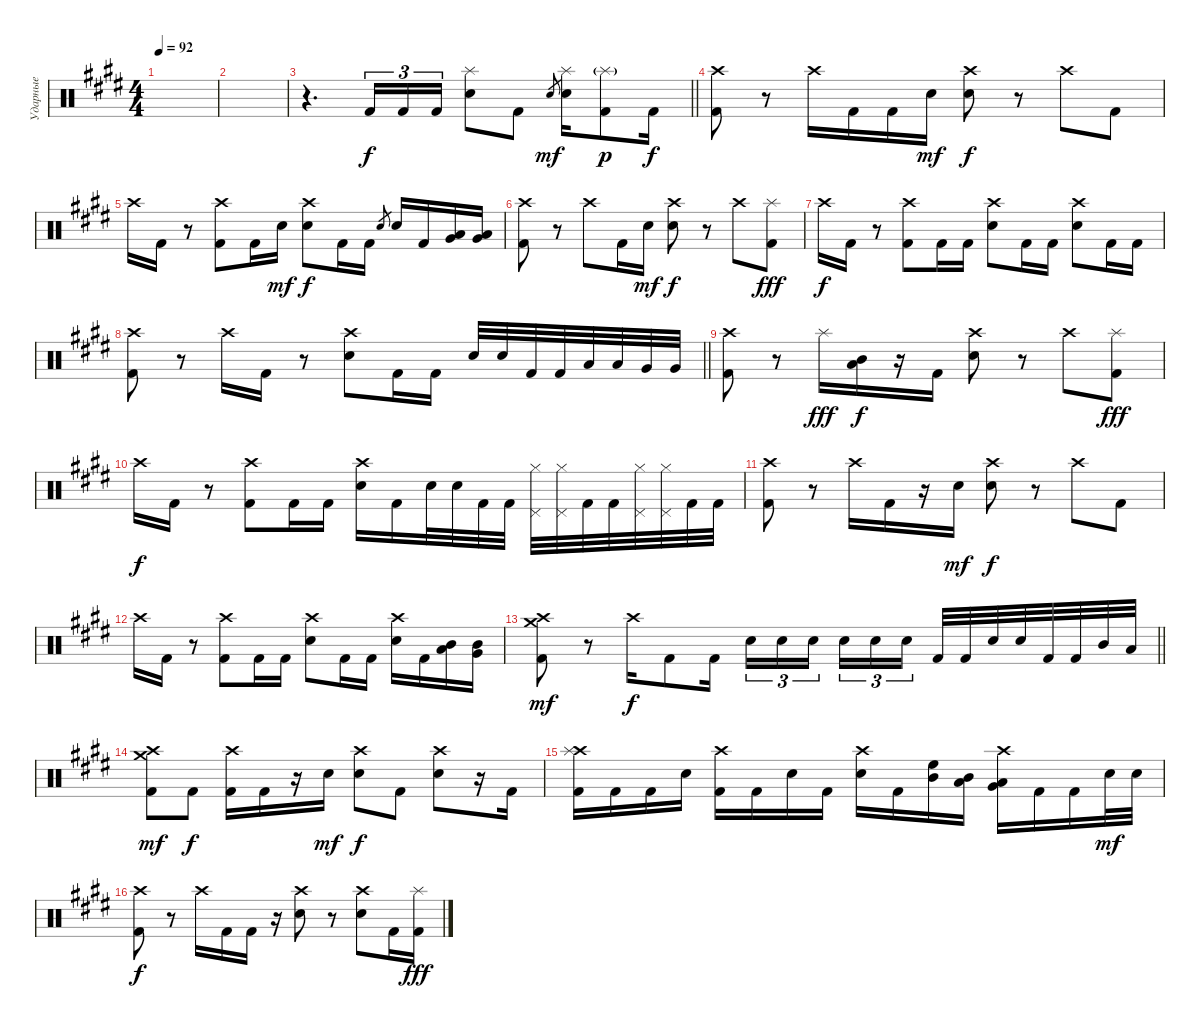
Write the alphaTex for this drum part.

\track ("Ударные" "Ударные") {instrument percussion}
\staff {score}
\articulation defaults
\ts (4 4)
\tempo 92
\clef neutral
\ks e
|
|
\barLineRight lightlight
r.4{d} "Kick (hit) 2".16{tu (3 2)} "Kick (hit) 2".16{tu (3 2)} "Kick (hit) 2".16{tu (3 2)} ("Splash (hit)" "Electric Snare (hit)").8 "Kick (hit) 2".8 "Electric Snare (hit)".8{gr dy mf} ("Splash (hit)" "Electric Snare (hit)").16 ("Splash (hit)"{g} "Kick (hit) 2").8{dy p} "Kick (hit) 2".16{dy f} |
("Crash high (hit)" "Kick (hit) 2").8 r.8 "Crash high (hit)".16 "Kick (hit) 2".16 "Kick (hit) 2".16 "Electric Snare (hit)".16{dy mf} ("Crash high (hit)" "Electric Snare (hit)").8{dy f} r.8 "Crash high (hit)".8 "Kick (hit) 2".8 |
"Crash high (hit)".16 "Kick (hit) 2".16 r.8 ("Crash high (hit)" "Kick (hit) 2").8 "Kick (hit) 2".16 "Electric Snare (hit)".16{dy mf} ("Crash high (hit)" "Electric Snare (hit)").8{dy f} "Kick (hit) 2".16 "Kick (hit) 2".16 "Electric Snare (hit)".8{gr} "Electric Snare (hit)".16 "Kick (hit) 2".16 ("Low Tom (hit)" "Very Low Tom (hit)").16 ("Very Low Tom (hit)" "Low Floor Tom (hit)").16 |
("Crash high (hit)" "Kick (hit) 2").8 r.8 "Crash high (hit)".8 "Kick (hit) 2".16 "Electric Snare (hit)".16{dy mf} ("Crash high (hit)" "Electric Snare (hit)").8{dy f} r.8 "Crash high (hit)".8 ("Splash (hit)" "Kick (hit) 2").8{dy fff} |
"Crash high (hit)".16{dy f} "Kick (hit) 2".16 r.8 ("Crash high (hit)" "Kick (hit) 2").8 "Kick (hit) 2".16 "Kick (hit) 2".16 ("Crash high (hit)" "Electric Snare (hit)").8 "Kick (hit) 2".16 "Kick (hit) 2".16 ("Crash high (hit)" "Electric Snare (hit)").8 "Kick (hit) 2".16 "Kick (hit) 2".16 |
\barLineRight lightlight
("Crash high (hit)" "Kick (hit) 2").8 r.8 "Crash high (hit)".16 "Kick (hit) 2".16 r.8 ("Crash high (hit)" "Electric Snare (hit)").8 "Kick (hit) 2".16 "Kick (hit) 2".16 "Electric Snare (hit)".32 "Electric Snare (hit)".32 "Kick (hit) 2".32 "Kick (hit) 2".32 "Low Tom (hit)".32 "Low Tom (hit)".32 "Very Low Tom (hit)".32 "Very Low Tom (hit)".32 |
("Crash high (hit)" "Kick (hit) 2").8 r.8 "Splash (hit)".16{dy fff} ("Low Tom (hit)" "Mid Tom (hit)").16{dy f} r.16 "Kick (hit) 2".16 ("Crash high (hit)" "Electric Snare (hit)").8 r.8 "Crash high (hit)".8 ("Splash (hit)" "Kick (hit) 2").8{dy fff} |
"Crash high (hit)".16{dy f} "Kick (hit) 2".16 r.8 ("Crash high (hit)" "Kick (hit) 2").8 "Kick (hit) 2".16 "Kick (hit) 2".16 ("Crash high (hit)" "Electric Snare (hit)").16 "Kick (hit) 2".16 "Electric Snare (hit)".32 "Electric Snare (hit)".32 "Kick (hit) 2".32 "Kick (hit) 2".32 ("Pedal Hi-Hat (hit)" "Hi-Hat (closed)").32 ("Pedal Hi-Hat (hit)" "Hi-Hat (closed)").32 "Kick (hit) 2".32 "Kick (hit) 2".32 ("Pedal Hi-Hat (hit)" "Hi-Hat (closed)").32 ("Pedal Hi-Hat (hit)" "Hi-Hat (closed)").32 "Kick (hit) 2".32 "Kick (hit) 2".32 |
("Crash high (hit)" "Kick (hit) 2").8 r.8 "Crash high (hit)".16 "Kick (hit) 2".16 r.16 "Electric Snare (hit)".16{dy mf} ("Crash high (hit)" "Electric Snare (hit)").8{dy f} r.8 "Crash high (hit)".8 "Kick (hit) 2".8 |
"Crash high (hit)".16 "Kick (hit) 2".16 r.8 ("Crash high (hit)" "Kick (hit) 2").8 "Kick (hit) 2".16 "Kick (hit) 2".16 ("Crash high (hit)" "Electric Snare (hit)").8 "Kick (hit) 2".16 "Kick (hit) 2".16 ("Crash high (hit)" "Electric Snare (hit)").16 "Kick (hit) 2".16 ("Mid Tom (hit)" "Low Tom (hit)").16 ("Very Low Tom (hit)" "Mid Tom (hit)").16 |
\barLineRight lightlight
("Crash high (hit)" "Crash medium (hit)" "Kick (hit) 2").8{dy mf} r.8 "Crash high (hit)".16{dy f} "Kick (hit) 2".8 "Kick (hit) 2".16 "Electric Snare (hit)".16{tu (3 2)} "Electric Snare (hit)".16{tu (3 2)} "Electric Snare (hit)".16{tu (3 2) beam splitsecondary} "Electric Snare (hit)".16{tu (3 2)} "Electric Snare (hit)".16{tu (3 2)} "Electric Snare (hit)".16{tu (3 2)} "Kick (hit) 2".32 "Kick (hit) 2".32 "Electric Snare (hit)".32 "Electric Snare (hit)".32 "Kick (hit) 2".32 "Kick (hit) 2".32 "Mid Tom (hit)".32 "Low Tom (hit)".32 |
("Crash high (hit)" "Crash medium (hit)" "Kick (hit) 2").8{dy mf} "Kick (hit) 2".8{dy f} ("Crash high (hit)" "Kick (hit) 2").16 "Kick (hit) 2".16 r.16 "Electric Snare (hit)".16{dy mf} ("Crash high (hit)" "Electric Snare (hit)").8{dy f} "Kick (hit) 2".8 ("Crash high (hit)" "Electric Snare (hit)").8 r.16 "Kick (hit) 2".16 |
("Crash high (hit)" "Splash (hit)" "Kick (hit) 2").16 "Kick (hit) 2".16 "Kick (hit) 2".16 "Electric Snare (hit)".16 ("Crash high (hit)" "Kick (hit) 2").16 "Kick (hit) 2".16 "Electric Snare (hit)".16 "Kick (hit) 2".16 ("Crash high (hit)" "Electric Snare (hit)").16 "Kick (hit) 2".16 ("Mid Tom (hit)" "High Floor Tom (hit)").16 ("Low Tom (hit)" "Mid Tom (hit)").16 ("Crash high (hit)" "Low Tom (hit)" "Very Low Tom (hit)").16 "Kick (hit) 2".16 "Kick (hit) 2".16 "Electric Snare (hit)".32{dy mf} "Electric Snare (hit)".32 |
("Crash high (hit)" "Kick (hit) 2").8{dy f} r.8 "Crash high (hit)".16 "Kick (hit) 2".16 "Kick (hit) 2".16 r.16 ("Crash high (hit)" "Electric Snare (hit)").8 r.8 ("Crash high (hit)" "Electric Snare (hit)").8 "Kick (hit) 2".16 ("Splash (hit)" "Kick (hit) 2").16{dy fff}
